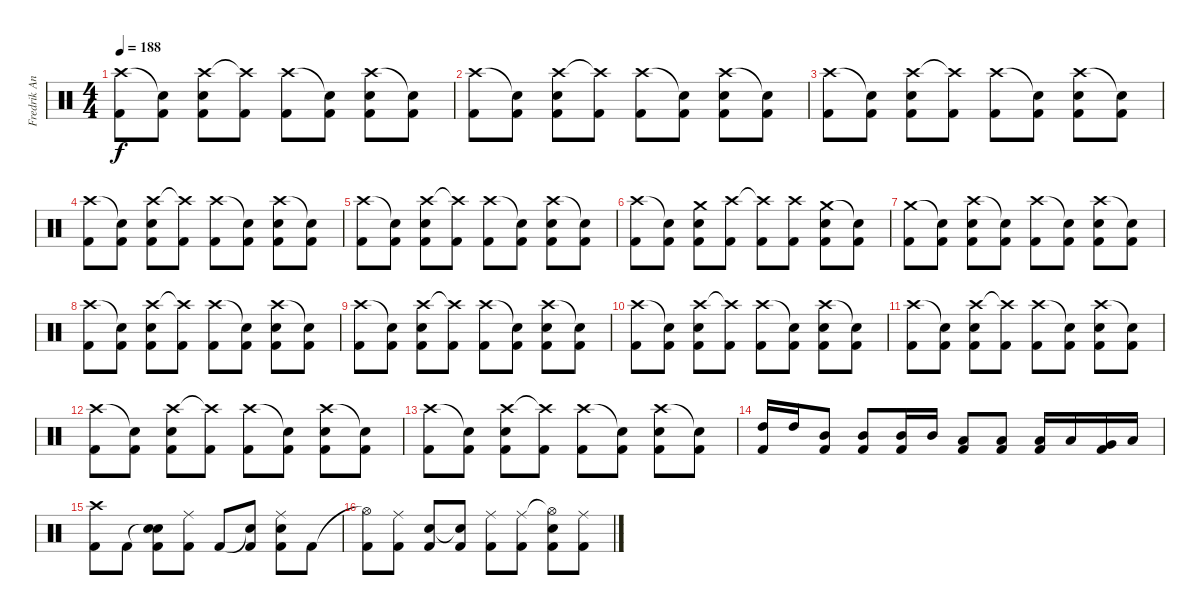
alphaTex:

\track ("Fredrik Andersson" "Fredrik An") {instrument percussion}
\staff {score}
\articulation defaults
\ts (4 4)
\tempo 188
\clef neutral
\ks c
("Crash high (hit)" "Kick (hit) 2").8{dy f} ("Snare (hit)"{t} "Kick (hit) 2").8 ("Crash high (hit)" "Snare (hit) 2" "Kick (hit) 2").8 ("Crash high (hit)"{t} "Kick (hit) 2").8 ("Crash high (hit)" "Kick (hit) 2").8 ("Snare (hit)"{t} "Kick (hit) 2").8 ("Crash high (hit)" "Snare (hit) 2" "Kick (hit) 2").8 ("Snare (hit)"{t} "Kick (hit) 2").8 |
("Crash high (hit)" "Kick (hit) 2").8 ("Snare (hit)"{t} "Kick (hit) 2").8 ("Crash high (hit)" "Snare (hit) 2" "Kick (hit) 2").8 ("Crash high (hit)"{t} "Kick (hit) 2").8 ("Crash high (hit)" "Kick (hit) 2").8 ("Snare (hit)"{t} "Kick (hit) 2").8 ("Crash high (hit)" "Snare (hit) 2" "Kick (hit) 2").8 ("Snare (hit)"{t} "Kick (hit) 2").8 |
("Crash high (hit)" "Kick (hit) 2").8 ("Snare (hit)"{t} "Kick (hit) 2").8 ("Crash high (hit)" "Snare (hit) 2" "Kick (hit) 2").8 ("Crash high (hit)"{t} "Kick (hit) 2").8 ("Crash high (hit)" "Kick (hit) 2").8 ("Snare (hit)"{t} "Kick (hit) 2").8 ("Crash high (hit)" "Snare (hit) 2" "Kick (hit) 2").8 ("Snare (hit)"{t} "Kick (hit) 2").8 |
("Crash high (hit)" "Kick (hit) 2").8 ("Snare (hit)"{t} "Kick (hit) 2").8 ("Crash high (hit)" "Snare (hit) 2" "Kick (hit) 2").8 ("Crash high (hit)"{t} "Kick (hit) 2").8 ("Crash high (hit)" "Kick (hit) 2").8 ("Snare (hit)"{t} "Kick (hit) 2").8 ("Crash high (hit)" "Snare (hit) 2" "Kick (hit) 2").8 ("Snare (hit)"{t} "Kick (hit) 2").8 |
("Crash high (hit)" "Kick (hit) 2").8 ("Snare (hit)"{t} "Kick (hit) 2").8 ("Crash high (hit)" "Snare (hit) 2" "Kick (hit) 2").8 ("Crash high (hit)"{t} "Kick (hit) 2").8 ("Crash high (hit)" "Kick (hit) 2").8 ("Snare (hit)"{t} "Kick (hit) 2").8 ("Crash high (hit)" "Snare (hit) 2" "Kick (hit) 2").8 ("Snare (hit)"{t} "Kick (hit) 2").8 |
("Crash high (hit)" "Kick (hit) 2").8 ("Snare (hit)"{t} "Kick (hit) 2").8 ("Crash medium (hit)" "Snare (hit) 2" "Kick (hit) 2").8 ("Crash high (hit)" "Kick (hit) 2").8 ("Crash high (hit)"{t} "Kick (hit) 2").8 ("Crash high (hit)" "Kick (hit) 2").8 ("Crash medium (hit)" "Snare (hit) 2" "Kick (hit) 2").8 ("Snare (hit)"{t} "Kick (hit) 2").8 |
("Crash medium (hit)" "Kick (hit) 2").8 ("Snare (hit)"{t} "Kick (hit) 2").8 ("Crash high (hit)" "Snare (hit) 2" "Kick (hit) 2").8 ("Snare (hit)"{t} "Kick (hit) 2").8 ("Crash high (hit)" "Kick (hit) 2").8 ("Snare (hit)"{t} "Kick (hit) 2").8 ("Crash high (hit)" "Snare (hit) 2" "Kick (hit) 2").8 ("Snare (hit)"{t} "Kick (hit) 2").8 |
("Crash high (hit)" "Kick (hit) 2").8 ("Snare (hit)"{t} "Kick (hit) 2").8 ("Crash high (hit)" "Snare (hit) 2" "Kick (hit) 2").8 ("Crash high (hit)"{t} "Kick (hit) 2").8 ("Crash high (hit)" "Kick (hit) 2").8 ("Snare (hit)"{t} "Kick (hit) 2").8 ("Crash high (hit)" "Snare (hit) 2" "Kick (hit) 2").8 ("Snare (hit)"{t} "Kick (hit) 2").8 |
("Crash high (hit)" "Kick (hit) 2").8 ("Snare (hit)"{t} "Kick (hit) 2").8 ("Crash high (hit)" "Snare (hit) 2" "Kick (hit) 2").8 ("Crash high (hit)"{t} "Kick (hit) 2").8 ("Crash high (hit)" "Kick (hit) 2").8 ("Snare (hit)"{t} "Kick (hit) 2").8 ("Crash high (hit)" "Snare (hit) 2" "Kick (hit) 2").8 ("Snare (hit)"{t} "Kick (hit) 2").8 |
("Crash high (hit)" "Kick (hit) 2").8 ("Snare (hit)"{t} "Kick (hit) 2").8 ("Crash high (hit)" "Snare (hit) 2" "Kick (hit) 2").8 ("Crash high (hit)"{t} "Kick (hit) 2").8 ("Crash high (hit)" "Kick (hit) 2").8 ("Snare (hit)"{t} "Kick (hit) 2").8 ("Crash high (hit)" "Snare (hit) 2" "Kick (hit) 2").8 ("Snare (hit)"{t} "Kick (hit) 2").8 |
("Crash high (hit)" "Kick (hit) 2").8 ("Snare (hit)"{t} "Kick (hit) 2").8 ("Crash high (hit)" "Snare (hit) 2" "Kick (hit) 2").8 ("Crash high (hit)"{t} "Kick (hit) 2").8 ("Crash high (hit)" "Kick (hit) 2").8 ("Snare (hit)"{t} "Kick (hit) 2").8 ("Crash high (hit)" "Snare (hit) 2" "Kick (hit) 2").8 ("Snare (hit)"{t} "Kick (hit) 2").8 |
("Crash high (hit)" "Kick (hit) 2").8 ("Snare (hit)"{t} "Kick (hit) 2").8 ("Crash high (hit)" "Snare (hit) 2" "Kick (hit) 2").8 ("Crash high (hit)"{t} "Kick (hit) 2").8 ("Crash high (hit)" "Kick (hit) 2").8 ("Snare (hit)"{t} "Kick (hit) 2").8 ("Crash high (hit)" "Snare (hit) 2" "Kick (hit) 2").8 ("Snare (hit)"{t} "Kick (hit) 2").8 |
("Crash high (hit)" "Kick (hit) 2").8 ("Snare (hit)"{t} "Kick (hit) 2").8 ("Crash high (hit)" "Snare (hit) 2" "Kick (hit) 2").8 ("Crash high (hit)"{t} "Kick (hit) 2").8 ("Crash high (hit)" "Kick (hit) 2").8 ("Snare (hit)"{t} "Kick (hit) 2").8 ("Crash high (hit)" "Snare (hit) 2" "Kick (hit) 2").8 ("Snare (hit)"{t} "Kick (hit) 2").8 |
("High Tom (hit)" "Kick (hit) 2").16 "High Tom (hit)".16 ("Mid Tom (hit)" "Kick (hit) 2").8 ("Mid Tom (hit)" "Kick (hit) 2").8 ("Mid Tom (hit)" "Kick (hit) 2").16 "Mid Tom (hit)".16 ("Low Tom (hit)" "Kick (hit) 2").8 ("Low Tom (hit)" "Kick (hit) 2").8 ("Low Tom (hit)" "Kick (hit) 2").16 "Low Tom (hit)".16 ("Very Low Tom (hit)" "Kick (hit) 2").16 "Low Floor Tom (hit)".16 |
("Crash high (hit)" "Kick (hit) 2").8 "Kick (hit) 2".8 ("Snare (hit)"{t} "Snare (hit) 2" "Kick (hit) 2").8 ("Ride (middle)" "Kick (hit) 2").8 "Kick (hit) 2".8 ("Snare (hit)"{t} "Kick (hit) 2").8 ("Ride (middle)" "Snare (hit) 2" "Kick (hit) 2").8 "Kick (hit) 2".8 |
("Hi-Hat (open)"{t} "Kick (hit) 2").8 ("Ride (middle)" "Kick (hit) 2").8 ("Snare (hit) 2" "Kick (hit) 2").8 ("Snare (hit)"{t} "Kick (hit) 2").8 ("Ride (middle)" "Kick (hit) 2").8 ("Ride (middle)" "Kick (hit) 2").8 ("Hi-Hat (open)"{t} "Snare (hit) 2" "Kick (hit) 2").8 ("Ride (middle)" "Kick (hit) 2").8
